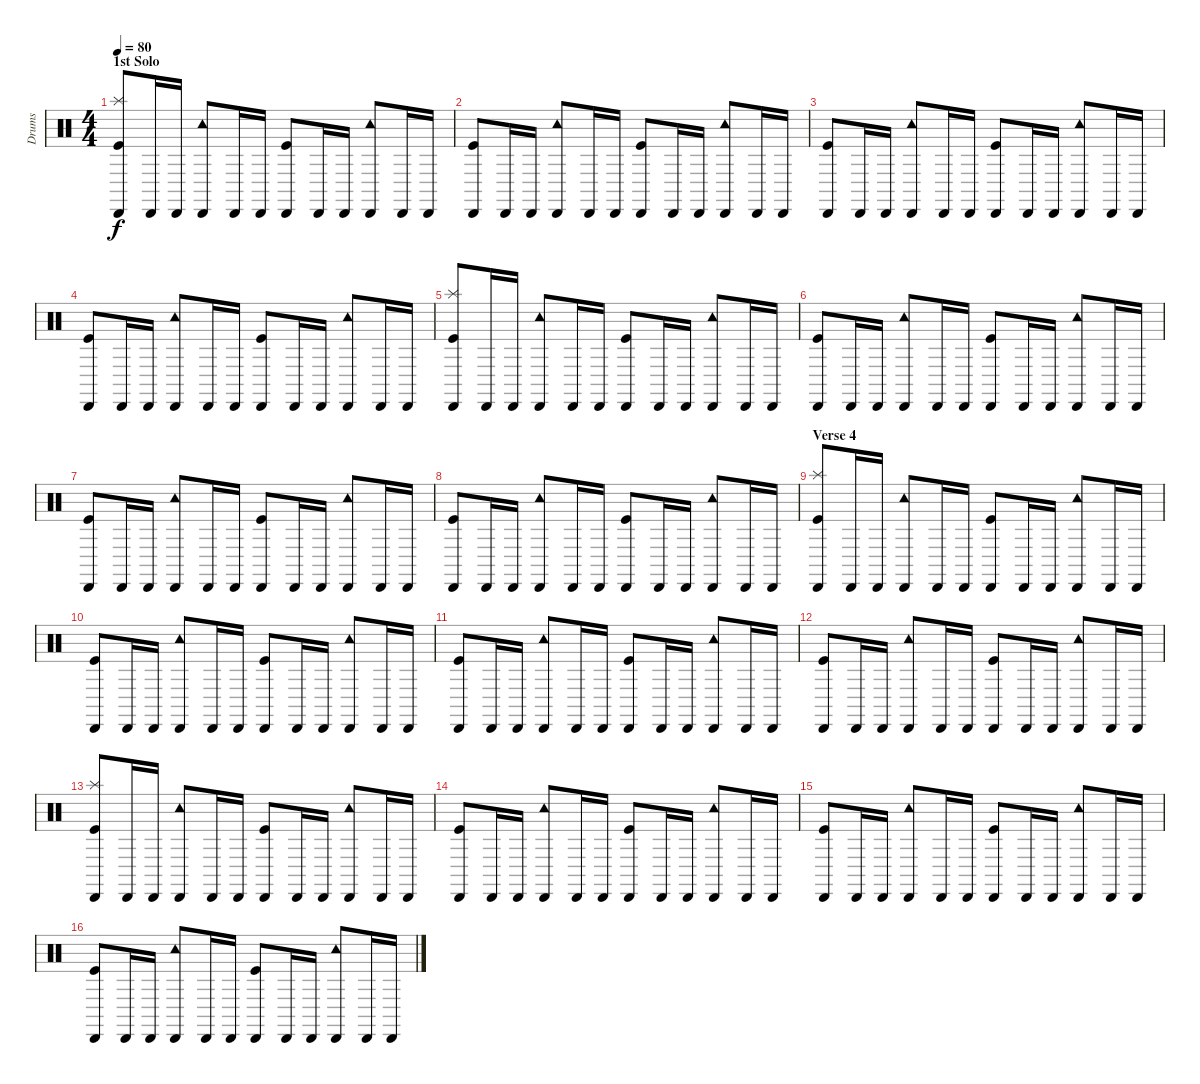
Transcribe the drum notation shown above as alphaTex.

\track ("Drums" "Drums") {instrument percussion}
\staff {score}
\articulation defaults
\ts (4 4)
\section ("" "1st Solo")
\tempo 80
\clef neutral
\ks c
("Cabasa (hit)" "Splash (hit)" "Kick (hit)").8{dy f} "Cabasa (hit)".16 "Cabasa (hit)".16 ("Cabasa (hit)" "Tambourine (hit)").8 "Cabasa (hit)".16 "Cabasa (hit)".16 ("Cabasa (hit)" "Kick (hit)").8 "Cabasa (hit)".16 "Cabasa (hit)".16 ("Cabasa (hit)" "Tambourine (hit)").8 "Cabasa (hit)".16 "Cabasa (hit)".16 |
("Cabasa (hit)" "Kick (hit)").8 "Cabasa (hit)".16 "Cabasa (hit)".16 ("Cabasa (hit)" "Tambourine (hit)").8 "Cabasa (hit)".16 "Cabasa (hit)".16 ("Cabasa (hit)" "Kick (hit)").8 "Cabasa (hit)".16 "Cabasa (hit)".16 ("Cabasa (hit)" "Tambourine (hit)").8 "Cabasa (hit)".16 "Cabasa (hit)".16 |
("Cabasa (hit)" "Kick (hit)").8 "Cabasa (hit)".16 "Cabasa (hit)".16 ("Cabasa (hit)" "Tambourine (hit)").8 "Cabasa (hit)".16 "Cabasa (hit)".16 ("Cabasa (hit)" "Kick (hit)").8 "Cabasa (hit)".16 "Cabasa (hit)".16 ("Cabasa (hit)" "Tambourine (hit)").8 "Cabasa (hit)".16 "Cabasa (hit)".16 |
("Cabasa (hit)" "Kick (hit)").8 "Cabasa (hit)".16 "Cabasa (hit)".16 ("Cabasa (hit)" "Tambourine (hit)").8 "Cabasa (hit)".16 "Cabasa (hit)".16 ("Cabasa (hit)" "Kick (hit)").8 "Cabasa (hit)".16 "Cabasa (hit)".16 ("Cabasa (hit)" "Tambourine (hit)").8 "Cabasa (hit)".16 "Cabasa (hit)".16 |
("Cabasa (hit)" "Splash (hit)" "Kick (hit)").8 "Cabasa (hit)".16 "Cabasa (hit)".16 ("Cabasa (hit)" "Tambourine (hit)").8 "Cabasa (hit)".16 "Cabasa (hit)".16 ("Cabasa (hit)" "Kick (hit)").8 "Cabasa (hit)".16 "Cabasa (hit)".16 ("Cabasa (hit)" "Tambourine (hit)").8 "Cabasa (hit)".16 "Cabasa (hit)".16 |
("Cabasa (hit)" "Kick (hit)").8 "Cabasa (hit)".16 "Cabasa (hit)".16 ("Cabasa (hit)" "Tambourine (hit)").8 "Cabasa (hit)".16 "Cabasa (hit)".16 ("Cabasa (hit)" "Kick (hit)").8 "Cabasa (hit)".16 "Cabasa (hit)".16 ("Cabasa (hit)" "Tambourine (hit)").8 "Cabasa (hit)".16 "Cabasa (hit)".16 |
("Cabasa (hit)" "Kick (hit)").8 "Cabasa (hit)".16 "Cabasa (hit)".16 ("Cabasa (hit)" "Tambourine (hit)").8 "Cabasa (hit)".16 "Cabasa (hit)".16 ("Cabasa (hit)" "Kick (hit)").8 "Cabasa (hit)".16 "Cabasa (hit)".16 ("Cabasa (hit)" "Tambourine (hit)").8 "Cabasa (hit)".16 "Cabasa (hit)".16 |
("Cabasa (hit)" "Kick (hit)").8 "Cabasa (hit)".16 "Cabasa (hit)".16 ("Cabasa (hit)" "Tambourine (hit)").8 "Cabasa (hit)".16 "Cabasa (hit)".16 ("Cabasa (hit)" "Kick (hit)").8 "Cabasa (hit)".16 "Cabasa (hit)".16 ("Cabasa (hit)" "Tambourine (hit)").8 "Cabasa (hit)".16 "Cabasa (hit)".16 |
\section ("" "Verse 4")
("Cabasa (hit)" "Splash (hit)" "Kick (hit)").8 "Cabasa (hit)".16 "Cabasa (hit)".16 ("Cabasa (hit)" "Tambourine (hit)").8 "Cabasa (hit)".16 "Cabasa (hit)".16 ("Cabasa (hit)" "Kick (hit)").8 "Cabasa (hit)".16 "Cabasa (hit)".16 ("Cabasa (hit)" "Tambourine (hit)").8 "Cabasa (hit)".16 "Cabasa (hit)".16 |
("Cabasa (hit)" "Kick (hit)").8 "Cabasa (hit)".16 "Cabasa (hit)".16 ("Cabasa (hit)" "Tambourine (hit)").8 "Cabasa (hit)".16 "Cabasa (hit)".16 ("Cabasa (hit)" "Kick (hit)").8 "Cabasa (hit)".16 "Cabasa (hit)".16 ("Cabasa (hit)" "Tambourine (hit)").8 "Cabasa (hit)".16 "Cabasa (hit)".16 |
("Cabasa (hit)" "Kick (hit)").8 "Cabasa (hit)".16 "Cabasa (hit)".16 ("Cabasa (hit)" "Tambourine (hit)").8 "Cabasa (hit)".16 "Cabasa (hit)".16 ("Cabasa (hit)" "Kick (hit)").8 "Cabasa (hit)".16 "Cabasa (hit)".16 ("Cabasa (hit)" "Tambourine (hit)").8 "Cabasa (hit)".16 "Cabasa (hit)".16 |
("Cabasa (hit)" "Kick (hit)").8 "Cabasa (hit)".16 "Cabasa (hit)".16 ("Cabasa (hit)" "Tambourine (hit)").8 "Cabasa (hit)".16 "Cabasa (hit)".16 ("Cabasa (hit)" "Kick (hit)").8 "Cabasa (hit)".16 "Cabasa (hit)".16 ("Cabasa (hit)" "Tambourine (hit)").8 "Cabasa (hit)".16 "Cabasa (hit)".16 |
("Cabasa (hit)" "Splash (hit)" "Kick (hit)").8 "Cabasa (hit)".16 "Cabasa (hit)".16 ("Cabasa (hit)" "Tambourine (hit)").8 "Cabasa (hit)".16 "Cabasa (hit)".16 ("Cabasa (hit)" "Kick (hit)").8 "Cabasa (hit)".16 "Cabasa (hit)".16 ("Cabasa (hit)" "Tambourine (hit)").8 "Cabasa (hit)".16 "Cabasa (hit)".16 |
("Cabasa (hit)" "Kick (hit)").8 "Cabasa (hit)".16 "Cabasa (hit)".16 ("Cabasa (hit)" "Tambourine (hit)").8 "Cabasa (hit)".16 "Cabasa (hit)".16 ("Cabasa (hit)" "Kick (hit)").8 "Cabasa (hit)".16 "Cabasa (hit)".16 ("Cabasa (hit)" "Tambourine (hit)").8 "Cabasa (hit)".16 "Cabasa (hit)".16 |
("Cabasa (hit)" "Kick (hit)").8 "Cabasa (hit)".16 "Cabasa (hit)".16 ("Cabasa (hit)" "Tambourine (hit)").8 "Cabasa (hit)".16 "Cabasa (hit)".16 ("Cabasa (hit)" "Kick (hit)").8 "Cabasa (hit)".16 "Cabasa (hit)".16 ("Cabasa (hit)" "Tambourine (hit)").8 "Cabasa (hit)".16 "Cabasa (hit)".16 |
("Cabasa (hit)" "Kick (hit)").8 "Cabasa (hit)".16 "Cabasa (hit)".16 ("Cabasa (hit)" "Tambourine (hit)").8 "Cabasa (hit)".16 "Cabasa (hit)".16 ("Cabasa (hit)" "Kick (hit)").8 "Cabasa (hit)".16 "Cabasa (hit)".16 ("Cabasa (hit)" "Tambourine (hit)").8 "Cabasa (hit)".16 "Cabasa (hit)".16
